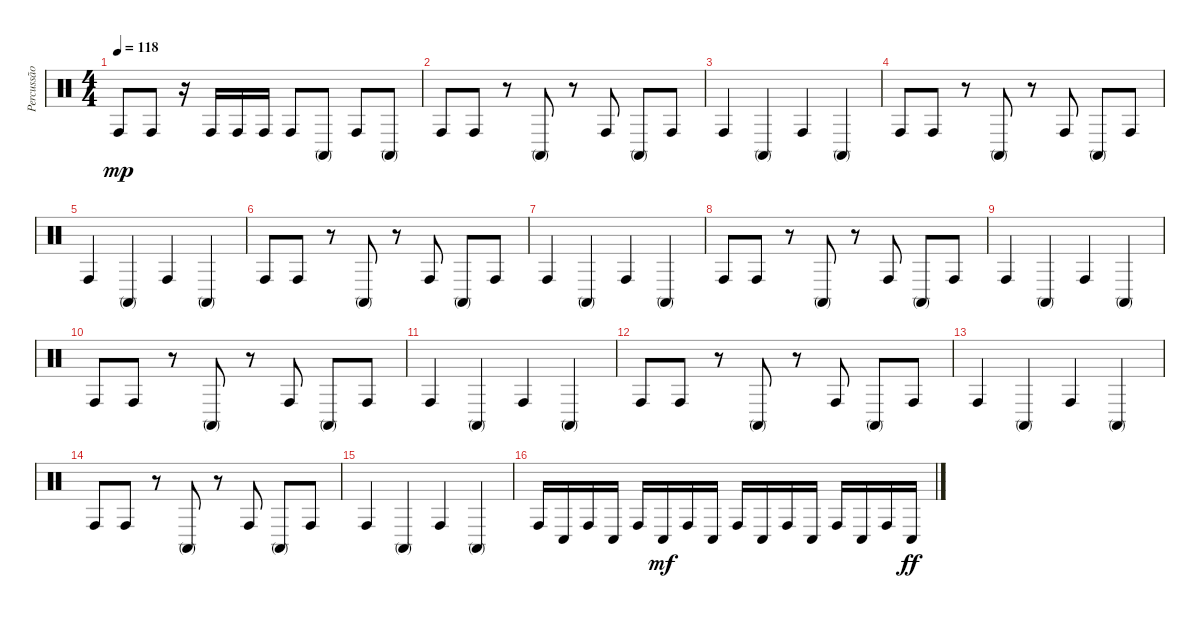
\track ("Percussão" "Percussão") {instrument percussion}
\staff {score}
\articulation defaults
\ts (4 4)
\tempo 118
\clef neutral
\ks c "Conga high (hit)".8{dy mp} "Conga high (hit)".8
r.16 "Conga high (hit)".16 "Conga high (hit)".16 "Conga high (hit)".16 "Conga high (hit)".8 "Conga high (mute)".8 "Conga high (hit)".8 "Conga high (mute)".8 |
"Conga high (hit)".8 "Conga high (hit)".8 r.8 "Conga high (mute)".8 r.8 "Conga high (hit)".8 "Conga high (mute)".8 "Conga high (hit)".8 |
"Conga high (hit)".4 "Conga high (mute)".4 "Conga high (hit)".4 "Conga high (mute)".4 |
"Conga high (hit)".8 "Conga high (hit)".8 r.8 "Conga high (mute)".8 r.8 "Conga high (hit)".8 "Conga high (mute)".8 "Conga high (hit)".8 |
"Conga high (hit)".4 "Conga high (mute)".4 "Conga high (hit)".4 "Conga high (mute)".4 |
"Conga high (hit)".8 "Conga high (hit)".8 r.8 "Conga high (mute)".8 r.8 "Conga high (hit)".8 "Conga high (mute)".8 "Conga high (hit)".8 |
"Conga high (hit)".4 "Conga high (mute)".4 "Conga high (hit)".4 "Conga high (mute)".4 |
"Conga high (hit)".8 "Conga high (hit)".8 r.8 "Conga high (mute)".8 r.8 "Conga high (hit)".8 "Conga high (mute)".8 "Conga high (hit)".8 |
"Conga high (hit)".4 "Conga high (mute)".4 "Conga high (hit)".4 "Conga high (mute)".4 |
"Conga high (hit)".8 "Conga high (hit)".8 r.8 "Conga high (mute)".8 r.8 "Conga high (hit)".8 "Conga high (mute)".8 "Conga high (hit)".8 |
"Conga high (hit)".4 "Conga high (mute)".4 "Conga high (hit)".4 "Conga high (mute)".4 |
"Conga high (hit)".8 "Conga high (hit)".8 r.8 "Conga high (mute)".8 r.8 "Conga high (hit)".8 "Conga high (mute)".8 "Conga high (hit)".8 |
"Conga high (hit)".4 "Conga high (mute)".4 "Conga high (hit)".4 "Conga high (mute)".4 |
"Conga high (hit)".8 "Conga high (hit)".8 r.8 "Conga high (mute)".8 r.8 "Conga high (hit)".8 "Conga high (mute)".8 "Conga high (hit)".8 |
"Conga high (hit)".4 "Conga high (mute)".4 "Conga high (hit)".4 "Conga high (mute)".4 |
"Conga high (hit)".16 "Conga low (hit)".16 "Conga high (hit)".16 "Conga low (hit)".16 "Conga high (hit)".16 "Conga low (hit)".16{dy mf} "Conga high (hit)".16 "Conga low (hit)".16 "Conga high (hit)".16 "Conga low (hit)".16 "Conga high (hit)".16 "Conga low (hit)".16 "Conga high (hit)".16 "Conga low (hit)".16 "Conga high (hit)".16 "Conga low (hit)".16{dy ff}
